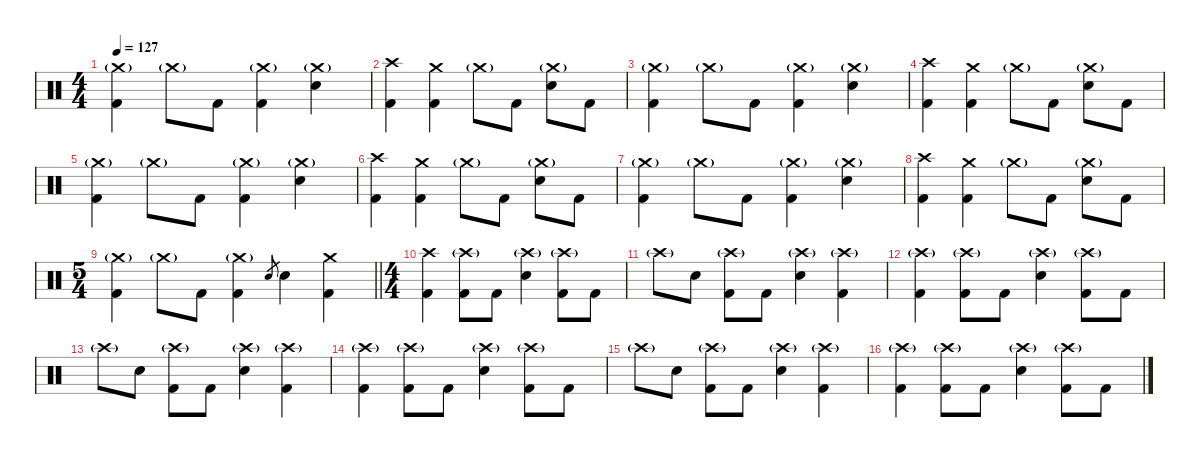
\defaultSystemsLayout 4
\hideDynamics
\bracketExtendMode nobrackets
\singleTrackTrackNamePolicy hidden
\multiTrackTrackNamePolicy hidden
\otherSystemsTrackNameOrientation horizontal
\track ("Gene Hoglan" "drm.") {instrument percussion}
\staff {score}
\articulation defaults
\ts (4 4)
\tempo 127
\clef neutral
\ks c
("Crash medium (hit)"{g} "Kick (hit) 2").4{dy f beam Down} "Crash medium (hit)"{g}.8{dy mf beam Down} "Kick (hit) 2".8{dy f beam Down} ("Crash medium (hit)"{g} "Kick (hit) 2").4{beam Down} ("Crash medium (hit)"{g} "Snare (hit) 2").4{beam Down} |
("Crash high (hit)" "Kick (hit) 2").4{beam Down} ("Crash medium (hit)" "Kick (hit) 2").4{beam Down} "Crash medium (hit)"{g}.8{dy mf beam Down} "Kick (hit) 2".8{dy f beam Down} ("Crash medium (hit)"{g} "Snare (hit) 2").8{beam Down} "Kick (hit) 2".8{beam Down} |
("Crash medium (hit)"{g} "Kick (hit) 2").4{beam Down} "Crash medium (hit)"{g}.8{dy mf beam Down} "Kick (hit) 2".8{dy f beam Down} ("Crash medium (hit)"{g} "Kick (hit) 2").4{beam Down} ("Crash medium (hit)"{g} "Snare (hit) 2").4{beam Down} |
("Crash high (hit)" "Kick (hit) 2").4{beam Down} ("Crash medium (hit)" "Kick (hit) 2").4{beam Down} "Crash medium (hit)"{g}.8{dy mf beam Down} "Kick (hit) 2".8{dy f beam Down} ("Crash medium (hit)"{g} "Snare (hit) 2").8{beam Down} "Kick (hit) 2".8{beam Down} |
("Crash medium (hit)"{g} "Kick (hit) 2").4{beam Down} "Crash medium (hit)"{g}.8{dy mf beam Down} "Kick (hit) 2".8{dy f beam Down} ("Crash medium (hit)"{g} "Kick (hit) 2").4{beam Down} ("Crash medium (hit)"{g} "Snare (hit) 2").4{beam Down} |
("Crash high (hit)" "Kick (hit) 2").4{beam Down} ("Crash medium (hit)" "Kick (hit) 2").4{beam Down} "Crash medium (hit)"{g}.8{dy mf beam Down} "Kick (hit) 2".8{dy f beam Down} ("Crash medium (hit)"{g} "Snare (hit) 2").8{beam Down} "Kick (hit) 2".8{beam Down} |
("Crash medium (hit)"{g} "Kick (hit) 2").4{beam Down} "Crash medium (hit)"{g}.8{dy mf beam Down} "Kick (hit) 2".8{dy f beam Down} ("Crash medium (hit)"{g} "Kick (hit) 2").4{beam Down} ("Crash medium (hit)"{g} "Snare (hit) 2").4{beam Down} |
("Crash high (hit)" "Kick (hit) 2").4{beam Down} ("Crash medium (hit)" "Kick (hit) 2").4{beam Down} "Crash medium (hit)"{g}.8{dy mf beam Down} "Kick (hit) 2".8{dy f beam Down} ("Crash medium (hit)"{g} "Snare (hit) 2").8{beam Down} "Kick (hit) 2".8{beam Down} |
\ts (5 4)
\beaming (8 6 4)
\barLineRight lightlight
("Crash medium (hit)"{g} "Kick (hit) 2").4{beam Down} "Crash medium (hit)"{g}.8{dy mf beam Down} "Kick (hit) 2".8{dy f beam Down} ("Crash medium (hit)"{g} "Kick (hit) 2").4{beam Down} "Electric Snare (hit)".8{gr dy mf beam Up} "Snare (hit) 2".4{dy f beam Down} ("Crash medium (hit)" "Kick (hit) 2").4{beam Down} |
\ts (4 4)
\beaming (8 2 2 2 2)
("Crash high (hit)" "Kick (hit) 2").4{beam Down} ("Crash high (hit)"{g} "Kick (hit) 2").8{beam Down} "Kick (hit) 2".8{beam Down} ("Crash high (hit)"{g} "Snare (hit) 2").4{beam Down} ("Crash high (hit)"{g} "Kick (hit) 2").8{beam Down} "Kick (hit) 2".8{beam Down} |
"Crash high (hit)"{g}.8{dy mf beam Down} "Snare (hit) 2".8{dy f beam Down} ("Crash high (hit)"{g} "Kick (hit) 2").8{beam Down} "Kick (hit) 2".8{beam Down} ("Crash high (hit)"{g} "Snare (hit) 2").4{beam Down} ("Crash high (hit)"{g} "Kick (hit) 2").4{beam Down} |
("Crash high (hit)"{g} "Kick (hit) 2").4{beam Down} ("Crash high (hit)"{g} "Kick (hit) 2").8{beam Down} "Kick (hit) 2".8{beam Down} ("Crash high (hit)"{g} "Snare (hit) 2").4{beam Down} ("Crash high (hit)"{g} "Kick (hit) 2").8{beam Down} "Kick (hit) 2".8{beam Down} |
"Crash high (hit)"{g}.8{dy mf beam Down} "Snare (hit) 2".8{dy f beam Down} ("Crash high (hit)"{g} "Kick (hit) 2").8{beam Down} "Kick (hit) 2".8{beam Down} ("Crash high (hit)"{g} "Snare (hit) 2").4{beam Down} ("Crash high (hit)"{g} "Kick (hit) 2").4{beam Down} |
("Crash high (hit)"{g} "Kick (hit) 2").4{beam Down} ("Crash high (hit)"{g} "Kick (hit) 2").8{beam Down} "Kick (hit) 2".8{beam Down} ("Crash high (hit)"{g} "Snare (hit) 2").4{beam Down} ("Crash high (hit)"{g} "Kick (hit) 2").8{beam Down} "Kick (hit) 2".8{beam Down} |
"Crash high (hit)"{g}.8{dy mf beam Down} "Snare (hit) 2".8{dy f beam Down} ("Crash high (hit)"{g} "Kick (hit) 2").8{beam Down} "Kick (hit) 2".8{beam Down} ("Crash high (hit)"{g} "Snare (hit) 2").4{beam Down} ("Crash high (hit)"{g} "Kick (hit) 2").4{beam Down} |
("Crash high (hit)"{g} "Kick (hit) 2").4{beam Down} ("Crash high (hit)"{g} "Kick (hit) 2").8{beam Down} "Kick (hit) 2".8{beam Down} ("Crash high (hit)"{g} "Snare (hit) 2").4{beam Down} ("Crash high (hit)"{g} "Kick (hit) 2").8{beam Down} "Kick (hit) 2".8{beam Down}
